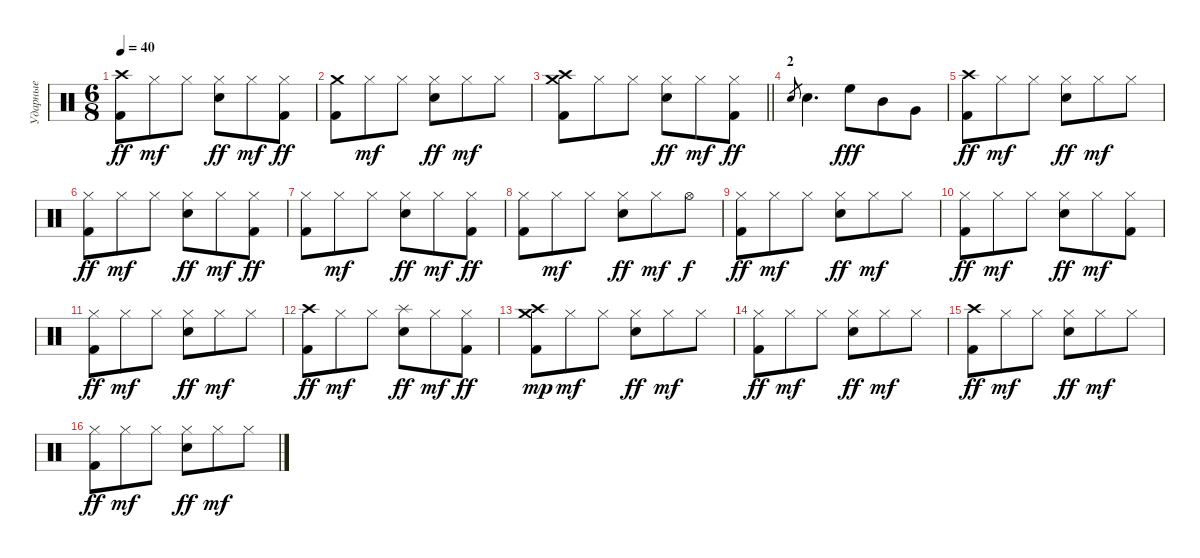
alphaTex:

\track ("Ударные" "Ударные") {instrument percussion}
\staff {score}
\articulation defaults
\ts (6 8)
\tempo 40
\clef neutral
\ks c
("Crash high (hit)" "Kick (hit) 2").8{dy ff} "Hi-Hat (closed)".8{dy mf} "Hi-Hat (closed)".8 ("Hi-Hat (closed)" "Snare (hit) 2").8{dy ff} "Hi-Hat (closed)".8{dy mf} ("Hi-Hat (closed)" "Kick (hit) 2").8{dy ff} |
("Crash medium (hit)" "Kick (hit) 2").8 "Hi-Hat (closed)".8{dy mf} "Hi-Hat (closed)".8 ("Hi-Hat (closed)" "Snare (hit) 2").8{dy ff} "Hi-Hat (closed)".8{dy mf} "Hi-Hat (closed)".8 |
\barLineRight lightlight
("Crash high (hit)" "Kick (hit) 2" "Crash medium (hit)").8 "Hi-Hat (closed)".8 "Hi-Hat (closed)".8 ("Hi-Hat (closed)" "Snare (hit) 2").8{dy ff} "Hi-Hat (closed)".8{dy mf} ("Hi-Hat (closed)" "Kick (hit) 2").8{dy ff} |
\section ("" "2")
"Snare (hit) 2".8{gr} "Snare (hit) 2".4{d} "High Floor Tom (hit)".8{dy fff} "Mid Tom (hit)".8 "Very Low Tom (hit)".8 |
("Crash high (hit)" "Kick (hit) 2").8{dy ff} "Hi-Hat (closed)".8{dy mf} "Hi-Hat (closed)".8 ("Hi-Hat (closed)" "Snare (hit) 2").8{dy ff} "Hi-Hat (closed)".8{dy mf} "Hi-Hat (closed)".8 |
("Hi-Hat (closed)" "Kick (hit) 2").8{dy ff} "Hi-Hat (closed)".8{dy mf} "Hi-Hat (closed)".8 ("Hi-Hat (closed)" "Snare (hit) 2").8{dy ff} "Hi-Hat (closed)".8{dy mf} ("Hi-Hat (closed)" "Kick (hit) 2").8{dy ff} |
("Hi-Hat (closed)" "Kick (hit) 2").8 "Hi-Hat (closed)".8{dy mf} "Hi-Hat (closed)".8 ("Hi-Hat (closed)" "Snare (hit) 2").8{dy ff} "Hi-Hat (closed)".8{dy mf} ("Hi-Hat (closed)" "Kick (hit) 2").8{dy ff} |
("Hi-Hat (closed)" "Kick (hit) 2").8 "Hi-Hat (closed)".8{dy mf} "Hi-Hat (closed)".8 ("Hi-Hat (closed)" "Snare (hit) 2").8{dy ff} "Hi-Hat (closed)".8{dy mf} "Hi-Hat (open)".8{dy f} |
("Hi-Hat (closed)" "Kick (hit) 2").8{dy ff} "Hi-Hat (closed)".8{dy mf} "Hi-Hat (closed)".8 ("Hi-Hat (closed)" "Snare (hit) 2").8{dy ff} "Hi-Hat (closed)".8{dy mf} "Hi-Hat (closed)".8 |
("Hi-Hat (closed)" "Kick (hit) 2").8{dy ff} "Hi-Hat (closed)".8{dy mf} "Hi-Hat (closed)".8 ("Hi-Hat (closed)" "Snare (hit) 2").8{dy ff} "Hi-Hat (closed)".8{dy mf} ("Hi-Hat (closed)" "Kick (hit) 2").8 |
("Hi-Hat (closed)" "Kick (hit) 2").8{dy ff} "Hi-Hat (closed)".8{dy mf} "Hi-Hat (closed)".8 ("Hi-Hat (closed)" "Snare (hit) 2").8{dy ff} "Hi-Hat (closed)".8{dy mf} "Hi-Hat (closed)".8 |
("Crash high (hit)" "Kick (hit) 2").8{dy ff} "Hi-Hat (closed)".8{dy mf} "Hi-Hat (closed)".8 ("Splash (hit)" "Snare (hit) 2").8{dy ff} "Hi-Hat (closed)".8{dy mf} ("Hi-Hat (closed)" "Kick (hit) 2").8{dy ff} |
("Crash high (hit)" "Kick (hit) 2" "Crash medium (hit)").8{dy mp} "Hi-Hat (closed)".8{dy mf} "Hi-Hat (closed)".8 ("Hi-Hat (closed)" "Snare (hit) 2").8{dy ff} "Hi-Hat (closed)".8{dy mf} "Hi-Hat (closed)".8 |
("Hi-Hat (closed)" "Kick (hit) 2").8{dy ff} "Hi-Hat (closed)".8{dy mf} "Hi-Hat (closed)".8 ("Hi-Hat (closed)" "Snare (hit) 2").8{dy ff} "Hi-Hat (closed)".8{dy mf} "Hi-Hat (closed)".8 |
("Crash high (hit)" "Kick (hit) 2").8{dy ff} "Hi-Hat (closed)".8{dy mf} "Hi-Hat (closed)".8 ("Hi-Hat (closed)" "Snare (hit) 2").8{dy ff} "Hi-Hat (closed)".8{dy mf} "Hi-Hat (closed)".8 |
("Hi-Hat (closed)" "Kick (hit) 2").8{dy ff} "Hi-Hat (closed)".8{dy mf} "Hi-Hat (closed)".8 ("Hi-Hat (closed)" "Snare (hit) 2").8{dy ff} "Hi-Hat (closed)".8{dy mf} "Hi-Hat (closed)".8
